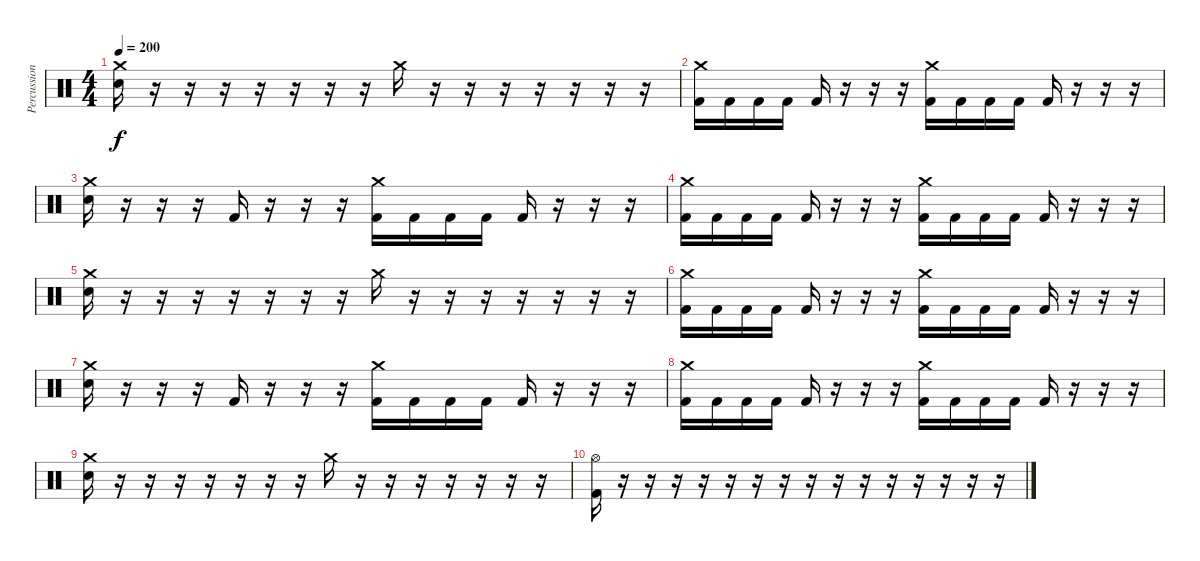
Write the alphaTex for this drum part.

\track ("Percussion" "Percussion") {instrument percussion}
\staff {score}
\articulation defaults
\ts (4 4)
\tempo 200
\clef neutral
\ks c
("Crash medium (hit)" "Electric Snare (hit)").16{dy f} r.16 r.16 r.16 r.16 r.16 r.16 r.16 "Crash medium (hit)".16 r.16 r.16 r.16 r.16 r.16 r.16 r.16 |
("Crash medium (hit)" "Kick (hit) 2").16 "Kick (hit) 2".16 "Kick (hit) 2".16 "Kick (hit) 2".16 "Kick (hit) 2".16 r.16 r.16 r.16 ("Crash medium (hit)" "Kick (hit) 2").16 "Kick (hit) 2".16 "Kick (hit) 2".16 "Kick (hit) 2".16 "Kick (hit) 2".16 r.16 r.16 r.16 |
("Crash medium (hit)" "Electric Snare (hit)").16 r.16 r.16 r.16 "Kick (hit) 2".16 r.16 r.16 r.16 ("Crash medium (hit)" "Kick (hit) 2").16 "Kick (hit) 2".16 "Kick (hit) 2".16 "Kick (hit) 2".16 "Kick (hit) 2".16 r.16 r.16 r.16 |
("Crash medium (hit)" "Kick (hit) 2").16 "Kick (hit) 2".16 "Kick (hit) 2".16 "Kick (hit) 2".16 "Kick (hit) 2".16 r.16 r.16 r.16 ("Crash medium (hit)" "Kick (hit) 2").16 "Kick (hit) 2".16 "Kick (hit) 2".16 "Kick (hit) 2".16 "Kick (hit) 2".16 r.16 r.16 r.16 |
("Crash medium (hit)" "Electric Snare (hit)").16 r.16 r.16 r.16 r.16 r.16 r.16 r.16 "Crash medium (hit)".16 r.16 r.16 r.16 r.16 r.16 r.16 r.16 |
("Crash medium (hit)" "Kick (hit) 2").16 "Kick (hit) 2".16 "Kick (hit) 2".16 "Kick (hit) 2".16 "Kick (hit) 2".16 r.16 r.16 r.16 ("Crash medium (hit)" "Kick (hit) 2").16 "Kick (hit) 2".16 "Kick (hit) 2".16 "Kick (hit) 2".16 "Kick (hit) 2".16 r.16 r.16 r.16 |
("Crash medium (hit)" "Electric Snare (hit)").16 r.16 r.16 r.16 "Kick (hit) 2".16 r.16 r.16 r.16 ("Crash medium (hit)" "Kick (hit) 2").16 "Kick (hit) 2".16 "Kick (hit) 2".16 "Kick (hit) 2".16 "Kick (hit) 2".16 r.16 r.16 r.16 |
("Crash medium (hit)" "Kick (hit) 2").16 "Kick (hit) 2".16 "Kick (hit) 2".16 "Kick (hit) 2".16 "Kick (hit) 2".16 r.16 r.16 r.16 ("Crash medium (hit)" "Kick (hit) 2").16 "Kick (hit) 2".16 "Kick (hit) 2".16 "Kick (hit) 2".16 "Kick (hit) 2".16 r.16 r.16 r.16 |
("Crash medium (hit)" "Electric Snare (hit)").16 r.16 r.16 r.16 r.16 r.16 r.16 r.16 "Crash medium (hit)".16 r.16 r.16 r.16 r.16 r.16 r.16 r.16 |
("Hi-Hat (open)" "Kick (hit) 2").16 r.16{volume 0} r.16 r.16 r.16 r.16 r.16 r.16 r.16 r.16 r.16 r.16 r.16 r.16 r.16 r.16
